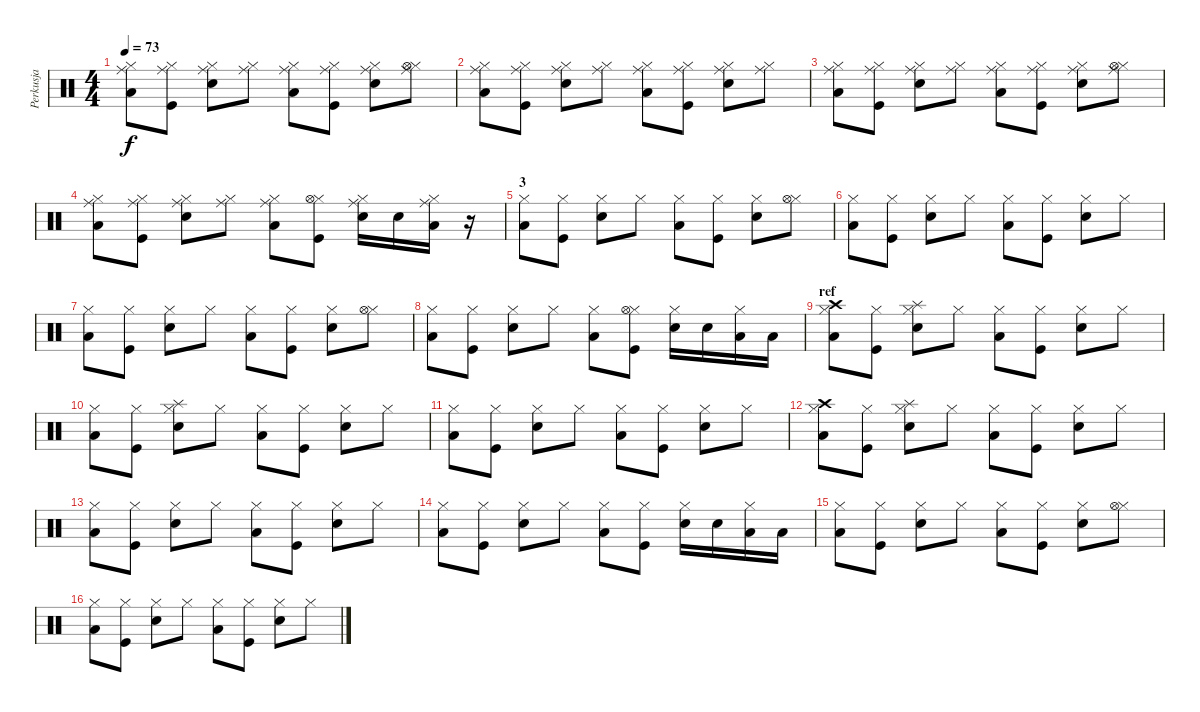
\track ("Perkusja" "Perkusja") {instrument percussion}
\staff {score}
\articulation defaults
\ts (4 4)
\tempo 73
\clef neutral
\ks c
("Hi-Hat (closed)" "Low Tom (hit)" "Ride (middle)").8{dy f} ("Hi-Hat (closed)" "Kick (hit)" "Ride (middle)").8 ("Hi-Hat (closed)" "Electric Snare (hit)" "Ride (middle)").8 ("Hi-Hat (closed)" "Ride (middle)").8 ("Hi-Hat (closed)" "Low Tom (hit)" "Ride (middle)").8 ("Hi-Hat (closed)" "Kick (hit)" "Ride (middle)").8 ("Hi-Hat (closed)" "Electric Snare (hit)" "Ride (middle)").8 ("Hi-Hat (closed)" "Hi-Hat (open)" "Ride (middle)").8 |
("Hi-Hat (closed)" "Low Tom (hit)" "Ride (middle)").8 ("Hi-Hat (closed)" "Kick (hit)" "Ride (middle)").8 ("Hi-Hat (closed)" "Electric Snare (hit)" "Ride (middle)").8 ("Hi-Hat (closed)" "Ride (middle)").8 ("Hi-Hat (closed)" "Low Tom (hit)" "Ride (middle)").8 ("Hi-Hat (closed)" "Kick (hit)" "Ride (middle)").8 ("Hi-Hat (closed)" "Electric Snare (hit)" "Ride (middle)").8 ("Hi-Hat (closed)" "Ride (middle)").8 |
("Hi-Hat (closed)" "Low Tom (hit)" "Ride (middle)").8 ("Hi-Hat (closed)" "Kick (hit)" "Ride (middle)").8 ("Hi-Hat (closed)" "Electric Snare (hit)" "Ride (middle)").8 ("Hi-Hat (closed)" "Ride (middle)").8 ("Hi-Hat (closed)" "Low Tom (hit)" "Ride (middle)").8 ("Hi-Hat (closed)" "Kick (hit)" "Ride (middle)").8 ("Hi-Hat (closed)" "Electric Snare (hit)" "Ride (middle)").8 ("Hi-Hat (closed)" "Hi-Hat (open)" "Ride (middle)").8 |
("Hi-Hat (closed)" "Low Tom (hit)" "Ride (middle)").8 ("Hi-Hat (closed)" "Kick (hit)" "Ride (middle)").8 ("Hi-Hat (closed)" "Electric Snare (hit)" "Ride (middle)").8 ("Hi-Hat (closed)" "Ride (middle)").8 ("Hi-Hat (closed)" "Low Tom (hit)" "Ride (middle)").8 ("Hi-Hat (closed)" "Kick (hit)" "Hi-Hat (open)").8 ("Hi-Hat (closed)" "Electric Snare (hit)" "Ride (middle)").16 "Electric Snare (hit)".16 ("Hi-Hat (closed)" "Low Tom (hit)" "Ride (middle)").16 r.16 |
\section ("" "3")
("Hi-Hat (closed)" "Low Tom (hit)").8 ("Hi-Hat (closed)" "Kick (hit)").8 ("Hi-Hat (closed)" "Electric Snare (hit)").8 "Hi-Hat (closed)".8 ("Hi-Hat (closed)" "Low Tom (hit)").8 ("Hi-Hat (closed)" "Kick (hit)").8 ("Hi-Hat (closed)" "Electric Snare (hit)").8 ("Hi-Hat (closed)" "Hi-Hat (open)").8 |
("Hi-Hat (closed)" "Low Tom (hit)").8 ("Hi-Hat (closed)" "Kick (hit)").8 ("Hi-Hat (closed)" "Electric Snare (hit)").8 "Hi-Hat (closed)".8 ("Hi-Hat (closed)" "Low Tom (hit)").8 ("Hi-Hat (closed)" "Kick (hit)").8 ("Hi-Hat (closed)" "Electric Snare (hit)").8 "Hi-Hat (closed)".8 |
("Hi-Hat (closed)" "Low Tom (hit)").8 ("Hi-Hat (closed)" "Kick (hit)").8 ("Hi-Hat (closed)" "Electric Snare (hit)").8 "Hi-Hat (closed)".8 ("Hi-Hat (closed)" "Low Tom (hit)").8 ("Hi-Hat (closed)" "Kick (hit)").8 ("Hi-Hat (closed)" "Electric Snare (hit)").8 ("Hi-Hat (closed)" "Hi-Hat (open)").8 |
("Hi-Hat (closed)" "Low Tom (hit)").8 ("Hi-Hat (closed)" "Kick (hit)").8 ("Hi-Hat (closed)" "Electric Snare (hit)").8 "Hi-Hat (closed)".8 ("Hi-Hat (closed)" "Low Tom (hit)").8 ("Hi-Hat (closed)" "Kick (hit)" "Hi-Hat (open)").8 ("Hi-Hat (closed)" "Electric Snare (hit)").16 "Electric Snare (hit)".16 ("Hi-Hat (closed)" "Low Tom (hit)").16 "Low Tom (hit)".16 |
\section ("" "ref")
("Hi-Hat (closed)" "Low Tom (hit)" "Crash high (hit)").8 ("Hi-Hat (closed)" "Kick (hit)").8 ("Hi-Hat (closed)" "Electric Snare (hit)" "Splash (hit)").8 "Hi-Hat (closed)".8 ("Hi-Hat (closed)" "Low Tom (hit)").8 ("Hi-Hat (closed)" "Kick (hit)").8 ("Hi-Hat (closed)" "Electric Snare (hit)").8 "Hi-Hat (closed)".8 |
("Hi-Hat (closed)" "Low Tom (hit)").8 ("Hi-Hat (closed)" "Kick (hit)").8 ("Hi-Hat (closed)" "Electric Snare (hit)" "Splash (hit)").8 "Hi-Hat (closed)".8 ("Hi-Hat (closed)" "Low Tom (hit)").8 ("Hi-Hat (closed)" "Kick (hit)").8 ("Hi-Hat (closed)" "Electric Snare (hit)").8 "Hi-Hat (closed)".8 |
("Hi-Hat (closed)" "Low Tom (hit)").8 ("Hi-Hat (closed)" "Kick (hit)").8 ("Hi-Hat (closed)" "Electric Snare (hit)").8 "Hi-Hat (closed)".8 ("Hi-Hat (closed)" "Low Tom (hit)").8 ("Hi-Hat (closed)" "Kick (hit)").8 ("Hi-Hat (closed)" "Electric Snare (hit)").8 "Hi-Hat (closed)".8 |
("Hi-Hat (closed)" "Low Tom (hit)" "Crash high (hit)").8 ("Hi-Hat (closed)" "Kick (hit)").8 ("Hi-Hat (closed)" "Electric Snare (hit)" "Splash (hit)").8 "Hi-Hat (closed)".8 ("Hi-Hat (closed)" "Low Tom (hit)").8 ("Hi-Hat (closed)" "Kick (hit)").8 ("Hi-Hat (closed)" "Electric Snare (hit)").8 "Hi-Hat (closed)".8 |
("Hi-Hat (closed)" "Low Tom (hit)").8 ("Hi-Hat (closed)" "Kick (hit)").8 ("Hi-Hat (closed)" "Electric Snare (hit)").8 "Hi-Hat (closed)".8 ("Hi-Hat (closed)" "Low Tom (hit)").8 ("Hi-Hat (closed)" "Kick (hit)").8 ("Hi-Hat (closed)" "Electric Snare (hit)").8 "Hi-Hat (closed)".8 |
("Hi-Hat (closed)" "Low Tom (hit)").8 ("Hi-Hat (closed)" "Kick (hit)").8 ("Hi-Hat (closed)" "Electric Snare (hit)").8 "Hi-Hat (closed)".8 ("Hi-Hat (closed)" "Low Tom (hit)").8 ("Hi-Hat (closed)" "Kick (hit)").8 ("Hi-Hat (closed)" "Electric Snare (hit)").16 "Electric Snare (hit)".16 ("Hi-Hat (closed)" "Low Tom (hit)").16 "Low Tom (hit)".16 |
("Hi-Hat (closed)" "Low Tom (hit)").8 ("Hi-Hat (closed)" "Kick (hit)").8 ("Hi-Hat (closed)" "Electric Snare (hit)").8 "Hi-Hat (closed)".8 ("Hi-Hat (closed)" "Low Tom (hit)").8 ("Hi-Hat (closed)" "Kick (hit)").8 ("Hi-Hat (closed)" "Electric Snare (hit)").8 ("Hi-Hat (closed)" "Hi-Hat (open)").8 |
("Hi-Hat (closed)" "Low Tom (hit)").8 ("Hi-Hat (closed)" "Kick (hit)").8 ("Hi-Hat (closed)" "Electric Snare (hit)").8 "Hi-Hat (closed)".8 ("Hi-Hat (closed)" "Low Tom (hit)").8 ("Hi-Hat (closed)" "Kick (hit)").8 ("Hi-Hat (closed)" "Electric Snare (hit)").8 "Hi-Hat (closed)".8
